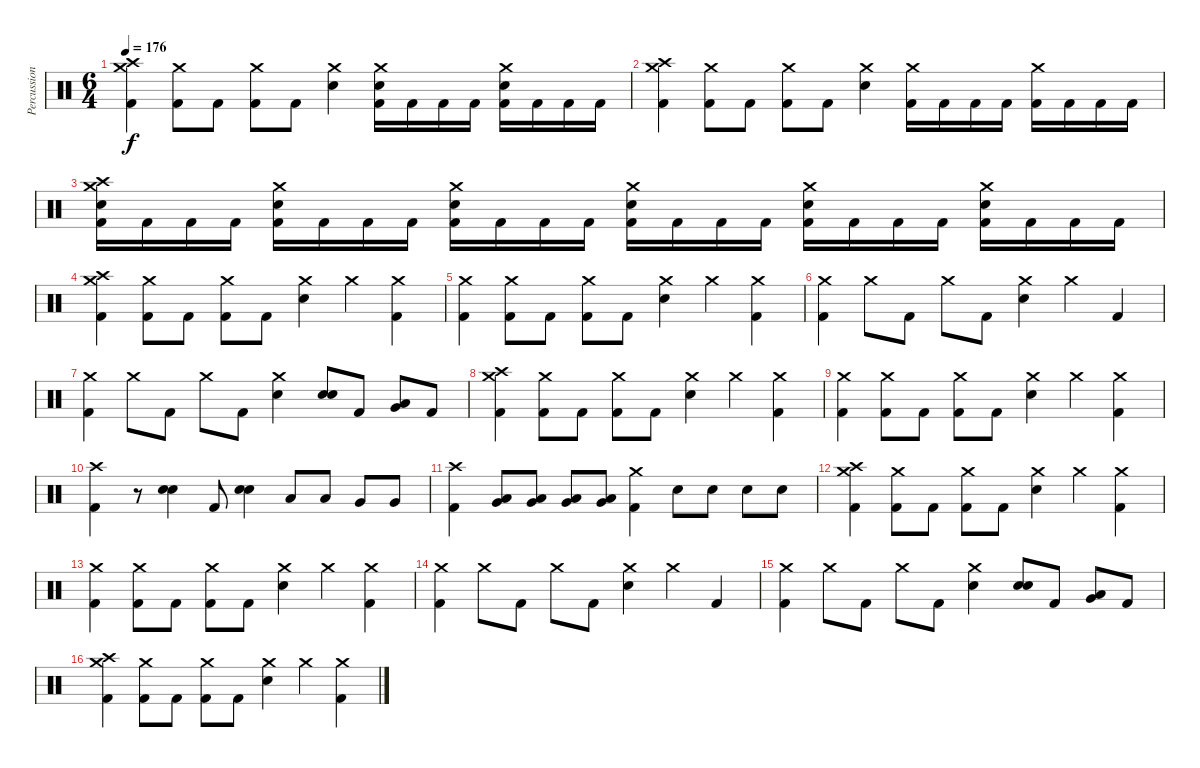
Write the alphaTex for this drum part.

\track ("Percussion" "Percussion") {instrument percussion}
\staff {score}
\articulation defaults
\ts (6 4)
\tempo 176
\clef neutral
\ks c
("Crash high (hit)" "Crash medium (hit)" "Kick (hit) 2").4{dy f} ("Crash medium (hit)" "Kick (hit) 2").8 "Kick (hit) 2".8 ("Crash medium (hit)" "Kick (hit) 2").8 "Kick (hit) 2".8 ("Crash medium (hit)" "Snare (hit) 2").4 ("Crash medium (hit)" "Snare (hit) 2" "Kick (hit) 2").16 "Kick (hit) 2".16 "Kick (hit) 2".16 "Kick (hit) 2".16 ("Crash medium (hit)" "Snare (hit) 2" "Kick (hit) 2").16 "Kick (hit) 2".16 "Kick (hit) 2".16 "Kick (hit) 2".16 |
("Crash high (hit)" "Crash medium (hit)" "Kick (hit) 2").4 ("Crash medium (hit)" "Kick (hit) 2").8 "Kick (hit) 2".8 ("Crash medium (hit)" "Kick (hit) 2").8 "Kick (hit) 2".8 ("Crash medium (hit)" "Snare (hit) 2").4 ("Crash medium (hit)" "Kick (hit) 2").16 "Kick (hit) 2".16 "Kick (hit) 2".16 "Kick (hit) 2".16 ("Crash medium (hit)" "Kick (hit) 2").16 "Kick (hit) 2".16 "Kick (hit) 2".16 "Kick (hit) 2".16 |
("Crash high (hit)" "Crash medium (hit)" "Snare (hit) 2" "Kick (hit) 2").16 "Kick (hit) 2".16 "Kick (hit) 2".16 "Kick (hit) 2".16 ("Crash medium (hit)" "Snare (hit) 2" "Kick (hit) 2").16 "Kick (hit) 2".16 "Kick (hit) 2".16 "Kick (hit) 2".16 ("Crash medium (hit)" "Snare (hit) 2" "Kick (hit) 2").16 "Kick (hit) 2".16 "Kick (hit) 2".16 "Kick (hit) 2".16 ("Crash medium (hit)" "Snare (hit) 2" "Kick (hit) 2").16 "Kick (hit) 2".16 "Kick (hit) 2".16 "Kick (hit) 2".16 ("Crash medium (hit)" "Snare (hit) 2" "Kick (hit) 2").16 "Kick (hit) 2".16 "Kick (hit) 2".16 "Kick (hit) 2".16 ("Crash medium (hit)" "Snare (hit) 2" "Kick (hit) 2").16 "Kick (hit) 2".16 "Kick (hit) 2".16 "Kick (hit) 2".16 |
("Crash high (hit)" "Crash medium (hit)" "Kick (hit) 2").4 ("Crash medium (hit)" "Kick (hit) 2").8 "Kick (hit) 2".8 ("Crash medium (hit)" "Kick (hit) 2").8 "Kick (hit) 2".8 ("Crash medium (hit)" "Snare (hit) 2").4 "Crash medium (hit)".4 ("Crash medium (hit)" "Kick (hit) 2").4 |
("Crash medium (hit)" "Kick (hit) 2").4 ("Crash medium (hit)" "Kick (hit) 2").8 "Kick (hit) 2".8 ("Crash medium (hit)" "Kick (hit) 2").8 "Kick (hit) 2".8 ("Crash medium (hit)" "Snare (hit) 2").4 "Crash medium (hit)".4 ("Crash medium (hit)" "Kick (hit) 2").4 |
("Crash medium (hit)" "Kick (hit) 2").4 "Crash medium (hit)".8 "Kick (hit) 2".8 "Crash medium (hit)".8 "Kick (hit) 2".8 ("Crash medium (hit)" "Snare (hit) 2").4 "Crash medium (hit)".4 "Kick (hit) 2".4 |
("Crash medium (hit)" "Kick (hit) 2").4 "Crash medium (hit)".8 "Kick (hit) 2".8 "Crash medium (hit)".8 "Kick (hit) 2".8 ("Crash medium (hit)" "Snare (hit) 2").4 ("Snare (hit) 2" "Snare (hit) 2").8 "Kick (hit) 2".8 ("Very Low Tom (hit)" "Low Tom (hit)").8 "Kick (hit) 2".8 |
("Crash high (hit)" "Crash medium (hit)" "Kick (hit) 2").4 ("Crash medium (hit)" "Kick (hit) 2").8 "Kick (hit) 2".8 ("Crash medium (hit)" "Kick (hit) 2").8 "Kick (hit) 2".8 ("Crash medium (hit)" "Snare (hit) 2").4 "Crash medium (hit)".4 ("Crash medium (hit)" "Kick (hit) 2").4 |
("Crash medium (hit)" "Kick (hit) 2").4 ("Crash medium (hit)" "Kick (hit) 2").8 "Kick (hit) 2".8 ("Crash medium (hit)" "Kick (hit) 2").8 "Kick (hit) 2".8 ("Crash medium (hit)" "Snare (hit) 2").4 "Crash medium (hit)".4 ("Crash medium (hit)" "Kick (hit) 2").4 |
("Crash high (hit)" "Kick (hit) 2").4 r.8 ("Snare (hit) 2" "Snare (hit) 2").4 "Kick (hit) 2".8 ("Snare (hit) 2" "Snare (hit) 2").4 "Low Tom (hit)".8 "Low Tom (hit)".8 "Very Low Tom (hit)".8 "Very Low Tom (hit)".8 |
("Crash high (hit)" "Kick (hit) 2").4 ("Low Floor Tom (hit)" "Very Low Tom (hit)").8 ("Low Floor Tom (hit)" "Very Low Tom (hit)").8 ("Low Floor Tom (hit)" "Very Low Tom (hit)").8 ("Low Floor Tom (hit)" "Very Low Tom (hit)").8 ("Crash medium (hit)" "Kick (hit) 2").4 "Snare (hit) 2".8 "Snare (hit) 2".8 "Snare (hit) 2".8 "Snare (hit) 2".8 |
("Crash high (hit)" "Crash medium (hit)" "Kick (hit) 2").4 ("Crash medium (hit)" "Kick (hit) 2").8 "Kick (hit) 2".8 ("Crash medium (hit)" "Kick (hit) 2").8 "Kick (hit) 2".8 ("Crash medium (hit)" "Snare (hit) 2").4 "Crash medium (hit)".4 ("Crash medium (hit)" "Kick (hit) 2").4 |
("Crash medium (hit)" "Kick (hit) 2").4 ("Crash medium (hit)" "Kick (hit) 2").8 "Kick (hit) 2".8 ("Crash medium (hit)" "Kick (hit) 2").8 "Kick (hit) 2".8 ("Crash medium (hit)" "Snare (hit) 2").4 "Crash medium (hit)".4 ("Crash medium (hit)" "Kick (hit) 2").4 |
("Crash medium (hit)" "Kick (hit) 2").4 "Crash medium (hit)".8 "Kick (hit) 2".8 "Crash medium (hit)".8 "Kick (hit) 2".8 ("Crash medium (hit)" "Snare (hit) 2").4 "Crash medium (hit)".4 "Kick (hit) 2".4 |
("Crash medium (hit)" "Kick (hit) 2").4 "Crash medium (hit)".8 "Kick (hit) 2".8 "Crash medium (hit)".8 "Kick (hit) 2".8 ("Crash medium (hit)" "Snare (hit) 2").4 ("Snare (hit) 2" "Snare (hit) 2").8 "Kick (hit) 2".8 ("Very Low Tom (hit)" "Low Tom (hit)").8 "Kick (hit) 2".8 |
("Crash high (hit)" "Crash medium (hit)" "Kick (hit) 2").4 ("Crash medium (hit)" "Kick (hit) 2").8 "Kick (hit) 2".8 ("Crash medium (hit)" "Kick (hit) 2").8 "Kick (hit) 2".8 ("Crash medium (hit)" "Snare (hit) 2").4 "Crash medium (hit)".4 ("Crash medium (hit)" "Kick (hit) 2").4
